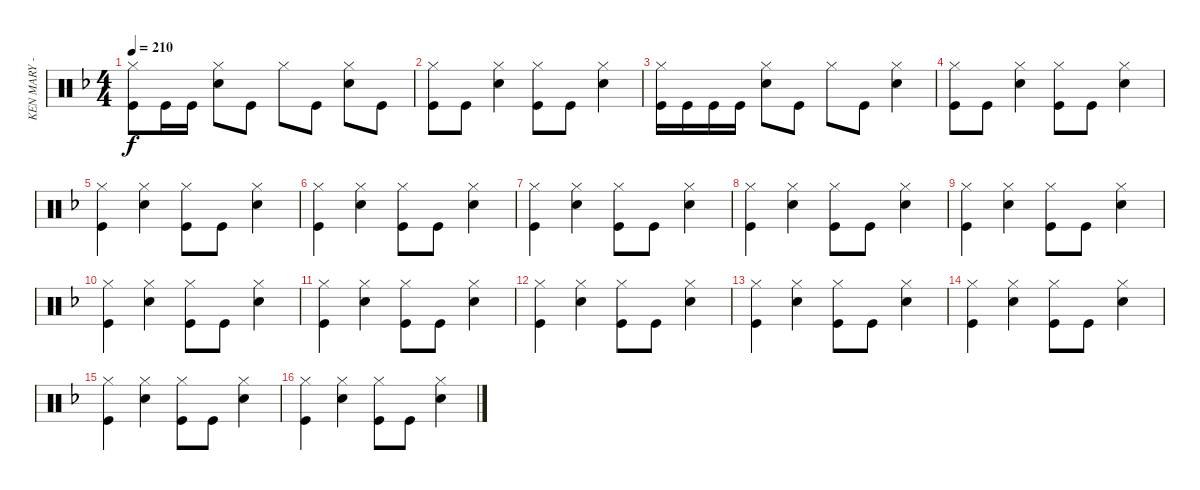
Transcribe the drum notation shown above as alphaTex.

\track ("KEN MARY - DRUMS" "KEN MARY -") {instrument percussion}
\staff {score}
\articulation defaults
\ts (4 4)
\tempo 210
\clef neutral
\ks f
("Hi-Hat (closed)" "Kick (hit)").8{dy f} "Kick (hit)".16 "Kick (hit)".16 ("Hi-Hat (closed)" "Snare (hit) 2").8 "Kick (hit)".8 "Hi-Hat (closed)".8 "Kick (hit)".8 ("Hi-Hat (closed)" "Snare (hit) 2").8 "Kick (hit)".8 |
("Hi-Hat (closed)" "Kick (hit)").8 "Kick (hit)".8 ("Hi-Hat (closed)" "Snare (hit) 2").4 ("Hi-Hat (closed)" "Kick (hit)").8 "Kick (hit)".8 ("Hi-Hat (closed)" "Snare (hit) 2").4 |
("Hi-Hat (closed)" "Kick (hit)").16 "Kick (hit)".16 "Kick (hit)".16 "Kick (hit)".16 ("Hi-Hat (closed)" "Snare (hit) 2").8 "Kick (hit)".8 "Hi-Hat (closed)".8 "Kick (hit)".8 ("Hi-Hat (closed)" "Snare (hit) 2").4 |
("Hi-Hat (closed)" "Kick (hit)").8 "Kick (hit)".8 ("Hi-Hat (closed)" "Snare (hit) 2").4 ("Hi-Hat (closed)" "Kick (hit)").8 "Kick (hit)".8 ("Hi-Hat (closed)" "Snare (hit) 2").4 |
("Hi-Hat (closed)" "Kick (hit)").4 ("Hi-Hat (closed)" "Snare (hit) 2").4 ("Hi-Hat (closed)" "Kick (hit)").8 "Kick (hit)".8 ("Hi-Hat (closed)" "Snare (hit) 2").4 |
("Hi-Hat (closed)" "Kick (hit)").4 ("Hi-Hat (closed)" "Snare (hit) 2").4 ("Hi-Hat (closed)" "Kick (hit)").8 "Kick (hit)".8 ("Hi-Hat (closed)" "Snare (hit) 2").4 |
("Hi-Hat (closed)" "Kick (hit)").4 ("Hi-Hat (closed)" "Snare (hit) 2").4 ("Hi-Hat (closed)" "Kick (hit)").8 "Kick (hit)".8 ("Hi-Hat (closed)" "Snare (hit) 2").4 |
("Hi-Hat (closed)" "Kick (hit)").4 ("Hi-Hat (closed)" "Snare (hit) 2").4 ("Hi-Hat (closed)" "Kick (hit)").8 "Kick (hit)".8 ("Hi-Hat (closed)" "Snare (hit) 2").4 |
("Hi-Hat (closed)" "Kick (hit)").4 ("Hi-Hat (closed)" "Snare (hit) 2").4 ("Hi-Hat (closed)" "Kick (hit)").8 "Kick (hit)".8 ("Hi-Hat (closed)" "Snare (hit) 2").4 |
("Hi-Hat (closed)" "Kick (hit)").4 ("Hi-Hat (closed)" "Snare (hit) 2").4 ("Hi-Hat (closed)" "Kick (hit)").8 "Kick (hit)".8 ("Hi-Hat (closed)" "Snare (hit) 2").4 |
("Hi-Hat (closed)" "Kick (hit)").4 ("Hi-Hat (closed)" "Snare (hit) 2").4 ("Hi-Hat (closed)" "Kick (hit)").8 "Kick (hit)".8 ("Hi-Hat (closed)" "Snare (hit) 2").4 |
("Hi-Hat (closed)" "Kick (hit)").4 ("Hi-Hat (closed)" "Snare (hit) 2").4 ("Hi-Hat (closed)" "Kick (hit)").8 "Kick (hit)".8 ("Hi-Hat (closed)" "Snare (hit) 2").4 |
("Hi-Hat (closed)" "Kick (hit)").4 ("Hi-Hat (closed)" "Snare (hit) 2").4 ("Hi-Hat (closed)" "Kick (hit)").8 "Kick (hit)".8 ("Hi-Hat (closed)" "Snare (hit) 2").4 |
("Hi-Hat (closed)" "Kick (hit)").4 ("Hi-Hat (closed)" "Snare (hit) 2").4 ("Hi-Hat (closed)" "Kick (hit)").8 "Kick (hit)".8 ("Hi-Hat (closed)" "Snare (hit) 2").4 |
("Hi-Hat (closed)" "Kick (hit)").4 ("Hi-Hat (closed)" "Snare (hit) 2").4 ("Hi-Hat (closed)" "Kick (hit)").8 "Kick (hit)".8 ("Hi-Hat (closed)" "Snare (hit) 2").4 |
("Hi-Hat (closed)" "Kick (hit)").4 ("Hi-Hat (closed)" "Snare (hit) 2").4 ("Hi-Hat (closed)" "Kick (hit)").8 "Kick (hit)".8 ("Hi-Hat (closed)" "Snare (hit) 2").4
